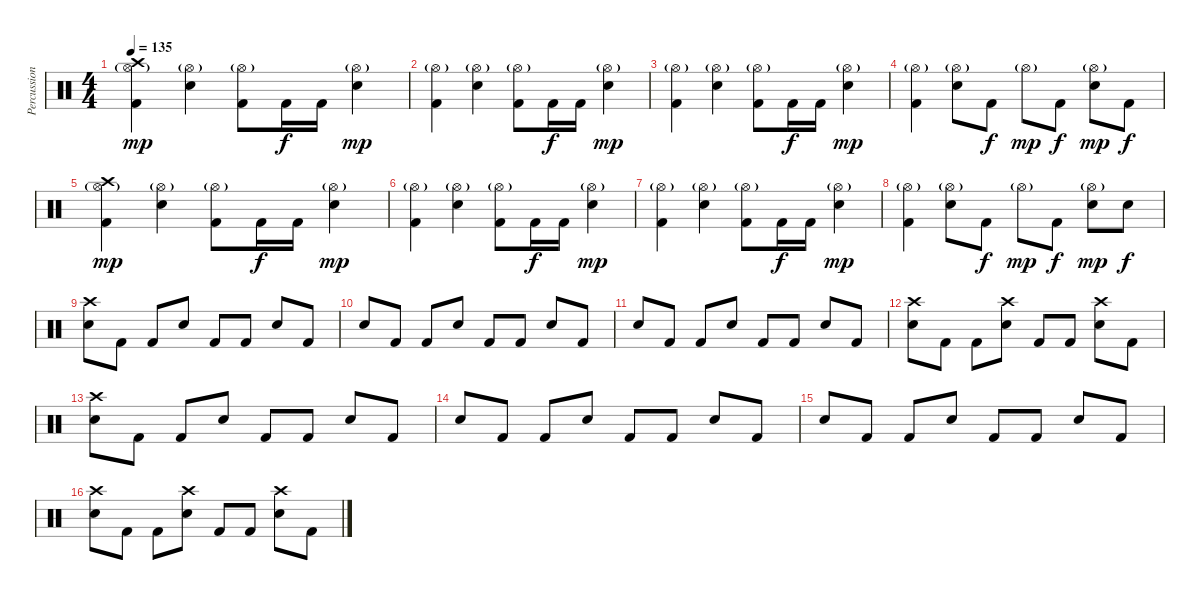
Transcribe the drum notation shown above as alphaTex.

\track ("Percussion" "Percussion") {instrument percussion}
\staff {score}
\articulation defaults
\ts (4 4)
\tempo 135
\clef neutral
\ks c
("Hi-Hat (open)"{g} "Crash high (hit)" "Kick (hit) 2").4{dy mp} ("Hi-Hat (open)"{g} "Snare (hit) 2").4 ("Hi-Hat (open)"{g} "Kick (hit) 2").8 "Kick (hit) 2".16{dy f} "Kick (hit) 2".16 ("Hi-Hat (open)"{g} "Snare (hit) 2").4{dy mp} |
("Hi-Hat (open)"{g} "Kick (hit) 2").4 ("Hi-Hat (open)"{g} "Snare (hit) 2").4 ("Hi-Hat (open)"{g} "Kick (hit) 2").8 "Kick (hit) 2".16{dy f} "Kick (hit) 2".16 ("Hi-Hat (open)"{g} "Snare (hit) 2").4{dy mp} |
("Hi-Hat (open)"{g} "Kick (hit) 2").4 ("Hi-Hat (open)"{g} "Snare (hit) 2").4 ("Hi-Hat (open)"{g} "Kick (hit) 2").8 "Kick (hit) 2".16{dy f} "Kick (hit) 2".16 ("Hi-Hat (open)"{g} "Snare (hit) 2").4{dy mp} |
("Hi-Hat (open)"{g} "Kick (hit) 2").4 ("Hi-Hat (open)"{g} "Snare (hit) 2").8 "Kick (hit) 2".8{dy f} "Hi-Hat (open)"{g}.8{dy mp} "Kick (hit) 2".8{dy f} ("Hi-Hat (open)"{g} "Snare (hit) 2").8{dy mp} "Kick (hit) 2".8{dy f} |
("Hi-Hat (open)"{g} "Crash high (hit)" "Kick (hit) 2").4{dy mp} ("Hi-Hat (open)"{g} "Snare (hit) 2").4 ("Hi-Hat (open)"{g} "Kick (hit) 2").8 "Kick (hit) 2".16{dy f} "Kick (hit) 2".16 ("Hi-Hat (open)"{g} "Snare (hit) 2").4{dy mp} |
("Hi-Hat (open)"{g} "Kick (hit) 2").4 ("Hi-Hat (open)"{g} "Snare (hit) 2").4 ("Hi-Hat (open)"{g} "Kick (hit) 2").8 "Kick (hit) 2".16{dy f} "Kick (hit) 2".16 ("Hi-Hat (open)"{g} "Snare (hit) 2").4{dy mp} |
("Hi-Hat (open)"{g} "Kick (hit) 2").4 ("Hi-Hat (open)"{g} "Snare (hit) 2").4 ("Hi-Hat (open)"{g} "Kick (hit) 2").8 "Kick (hit) 2".16{dy f} "Kick (hit) 2".16 ("Hi-Hat (open)"{g} "Snare (hit) 2").4{dy mp} |
("Hi-Hat (open)"{g} "Kick (hit) 2").4 ("Hi-Hat (open)"{g} "Snare (hit) 2").8 "Kick (hit) 2".8{dy f} "Hi-Hat (open)"{g}.8{dy mp} "Kick (hit) 2".8{dy f} ("Hi-Hat (open)"{g} "Snare (hit) 2").8{dy mp} "Snare (hit) 2".8{dy f} |
("Crash high (hit)" "Snare (hit) 2").8 "Kick (hit) 2".8 "Kick (hit) 2".8 "Snare (hit) 2".8 "Kick (hit) 2".8 "Kick (hit) 2".8 "Snare (hit) 2".8 "Kick (hit) 2".8 |
"Snare (hit) 2".8 "Kick (hit) 2".8 "Kick (hit) 2".8 "Snare (hit) 2".8 "Kick (hit) 2".8 "Kick (hit) 2".8 "Snare (hit) 2".8 "Kick (hit) 2".8 |
"Snare (hit) 2".8 "Kick (hit) 2".8 "Kick (hit) 2".8 "Snare (hit) 2".8 "Kick (hit) 2".8 "Kick (hit) 2".8 "Snare (hit) 2".8 "Kick (hit) 2".8 |
("Crash high (hit)" "Snare (hit) 2").8 "Kick (hit) 2".8 "Kick (hit) 2".8 ("Crash high (hit)" "Snare (hit) 2").8 "Kick (hit) 2".8 "Kick (hit) 2".8 ("Crash high (hit)" "Snare (hit) 2").8 "Kick (hit) 2".8 |
("Crash high (hit)" "Snare (hit) 2").8 "Kick (hit) 2".8 "Kick (hit) 2".8 "Snare (hit) 2".8 "Kick (hit) 2".8 "Kick (hit) 2".8 "Snare (hit) 2".8 "Kick (hit) 2".8 |
"Snare (hit) 2".8 "Kick (hit) 2".8 "Kick (hit) 2".8 "Snare (hit) 2".8 "Kick (hit) 2".8 "Kick (hit) 2".8 "Snare (hit) 2".8 "Kick (hit) 2".8 |
"Snare (hit) 2".8 "Kick (hit) 2".8 "Kick (hit) 2".8 "Snare (hit) 2".8 "Kick (hit) 2".8 "Kick (hit) 2".8 "Snare (hit) 2".8 "Kick (hit) 2".8 |
("Crash high (hit)" "Snare (hit) 2").8 "Kick (hit) 2".8 "Kick (hit) 2".8 ("Crash high (hit)" "Snare (hit) 2").8 "Kick (hit) 2".8 "Kick (hit) 2".8 ("Crash high (hit)" "Snare (hit) 2").8 "Kick (hit) 2".8
